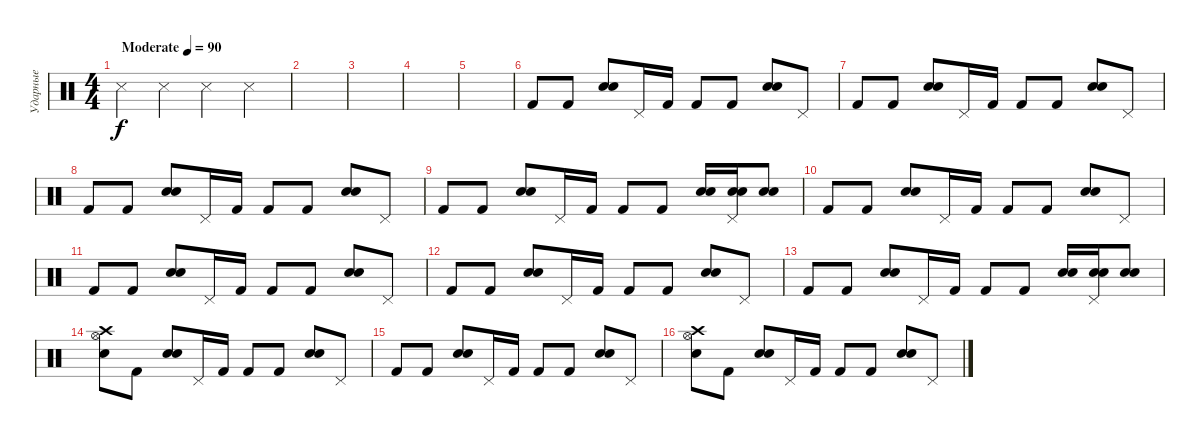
\track ("Ударные" "Ударные") {instrument percussion}
\staff {score}
\articulation defaults
\ts (4 4)
\tempo (90 "Moderate")
\clef neutral
\ks c "Snare (side stick) 3".4{dy f} "Snare (side stick) 3".4 "Snare (side stick) 3".4 "Snare (side stick) 3".4
|
|
|
|
|
"Kick (hit) 2".8 "Kick (hit) 2".8 ("Electric Snare (hit)" "Snare (hit) 2").8 "Pedal Hi-Hat (hit)".16 "Kick (hit) 2".16 "Kick (hit) 2".8 "Kick (hit) 2".8 ("Electric Snare (hit)" "Snare (hit) 2").8 "Pedal Hi-Hat (hit)".8 |
"Kick (hit) 2".8 "Kick (hit) 2".8 ("Electric Snare (hit)" "Snare (hit) 2").8 "Pedal Hi-Hat (hit)".16 "Kick (hit) 2".16 "Kick (hit) 2".8 "Kick (hit) 2".8 ("Electric Snare (hit)" "Snare (hit) 2").8 "Pedal Hi-Hat (hit)".8 |
"Kick (hit) 2".8 "Kick (hit) 2".8 ("Electric Snare (hit)" "Snare (hit) 2").8 "Pedal Hi-Hat (hit)".16 "Kick (hit) 2".16 "Kick (hit) 2".8 "Kick (hit) 2".8 ("Electric Snare (hit)" "Snare (hit) 2").8 "Pedal Hi-Hat (hit)".8 |
"Kick (hit) 2".8 "Kick (hit) 2".8 ("Electric Snare (hit)" "Snare (hit) 2").8 "Pedal Hi-Hat (hit)".16 "Kick (hit) 2".16 "Kick (hit) 2".8 "Kick (hit) 2".8 ("Electric Snare (hit)" "Snare (hit) 2").16 ("Pedal Hi-Hat (hit)" "Electric Snare (hit)" "Snare (hit) 2").16 ("Electric Snare (hit)" "Snare (hit) 2").8 |
"Kick (hit) 2".8 "Kick (hit) 2".8 ("Electric Snare (hit)" "Snare (hit) 2").8 "Pedal Hi-Hat (hit)".16 "Kick (hit) 2".16 "Kick (hit) 2".8 "Kick (hit) 2".8 ("Electric Snare (hit)" "Snare (hit) 2").8 "Pedal Hi-Hat (hit)".8 |
"Kick (hit) 2".8 "Kick (hit) 2".8 ("Electric Snare (hit)" "Snare (hit) 2").8 "Pedal Hi-Hat (hit)".16 "Kick (hit) 2".16 "Kick (hit) 2".8 "Kick (hit) 2".8 ("Electric Snare (hit)" "Snare (hit) 2").8 "Pedal Hi-Hat (hit)".8 |
"Kick (hit) 2".8 "Kick (hit) 2".8 ("Electric Snare (hit)" "Snare (hit) 2").8 "Pedal Hi-Hat (hit)".16 "Kick (hit) 2".16 "Kick (hit) 2".8 "Kick (hit) 2".8 ("Electric Snare (hit)" "Snare (hit) 2").8 "Pedal Hi-Hat (hit)".8 |
"Kick (hit) 2".8 "Kick (hit) 2".8 ("Electric Snare (hit)" "Snare (hit) 2").8 "Pedal Hi-Hat (hit)".16 "Kick (hit) 2".16 "Kick (hit) 2".8 "Kick (hit) 2".8 ("Electric Snare (hit)" "Snare (hit) 2").16 ("Pedal Hi-Hat (hit)" "Electric Snare (hit)" "Snare (hit) 2").16 ("Electric Snare (hit)" "Snare (hit) 2").8 |
("Crash high (hit)" "Hi-Hat (open)" "Electric Snare (hit)").8 "Kick (hit) 2".8 ("Electric Snare (hit)" "Snare (hit) 2").8 "Pedal Hi-Hat (hit)".16 "Kick (hit) 2".16 "Kick (hit) 2".8 "Kick (hit) 2".8 ("Electric Snare (hit)" "Snare (hit) 2").8 "Pedal Hi-Hat (hit)".8 |
"Kick (hit) 2".8 "Kick (hit) 2".8 ("Electric Snare (hit)" "Snare (hit) 2").8 "Pedal Hi-Hat (hit)".16 "Kick (hit) 2".16 "Kick (hit) 2".8 "Kick (hit) 2".8 ("Electric Snare (hit)" "Snare (hit) 2").8 "Pedal Hi-Hat (hit)".8 |
("Crash high (hit)" "Hi-Hat (open)" "Electric Snare (hit)").8 "Kick (hit) 2".8 ("Electric Snare (hit)" "Snare (hit) 2").8 "Pedal Hi-Hat (hit)".16 "Kick (hit) 2".16 "Kick (hit) 2".8 "Kick (hit) 2".8 ("Electric Snare (hit)" "Snare (hit) 2").8 "Pedal Hi-Hat (hit)".8
